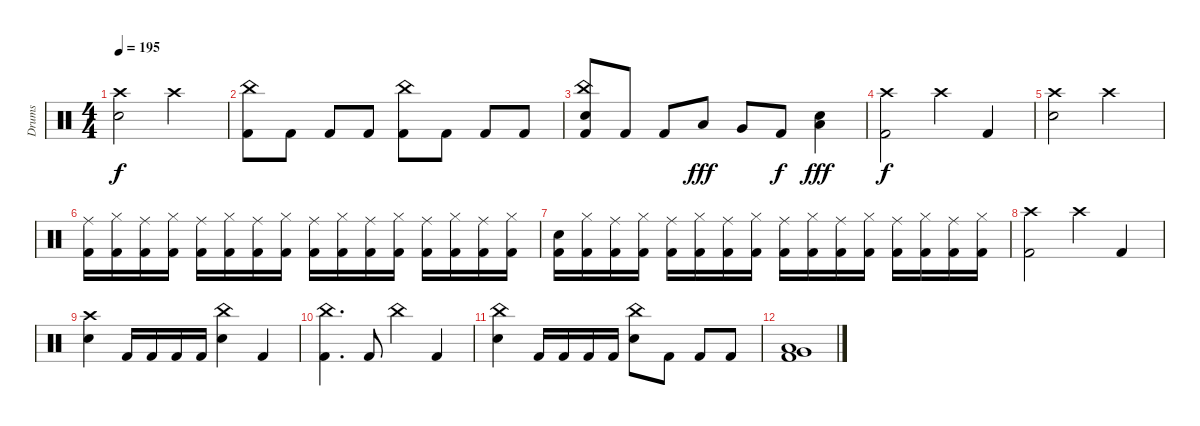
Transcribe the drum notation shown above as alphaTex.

\track ("Drums" "Drums") {instrument percussion}
\staff {score}
\articulation defaults
\ts (4 4)
\tempo 195
\clef neutral
\ks c
("Crash high (hit)" "Snare (hit) 2").2{dy f} "Crash high (hit)".2 |
("China (hit)" "Kick (hit) 2").8 "Kick (hit) 2".8 "Kick (hit) 2".8 "Kick (hit) 2".8 ("China (hit)" "Kick (hit) 2").8 "Kick (hit) 2".8 "Kick (hit) 2".8 "Kick (hit) 2".8 |
("China (hit)" "Snare (hit) 2" "Kick (hit) 2").8 "Kick (hit) 2".8 "Kick (hit) 2".8 "Low Tom (hit)".8{dy fff} "Very Low Tom (hit)".8 "Kick (hit) 2".8{dy f} ("Low Floor Tom (hit)" "Snare (hit) 2").4{dy fff} |
("Crash high (hit)" "Kick (hit) 2").2{dy f} "Crash high (hit)".4 "Kick (hit) 2".4 |
("Crash high (hit)" "Snare (hit) 2").2 "Crash high (hit)".2 |
("Ride (middle)" "Kick (hit) 2").16 ("Hi-Hat (closed)" "Kick (hit) 2").16 ("Ride (middle)" "Kick (hit) 2").16 ("Hi-Hat (closed)" "Kick (hit) 2").16 ("Ride (middle)" "Kick (hit) 2").16 ("Hi-Hat (closed)" "Kick (hit) 2").16 ("Ride (middle)" "Kick (hit) 2").16 ("Hi-Hat (closed)" "Kick (hit) 2").16 ("Ride (middle)" "Kick (hit) 2").16 ("Hi-Hat (closed)" "Kick (hit) 2").16 ("Ride (middle)" "Kick (hit) 2").16 ("Hi-Hat (closed)" "Kick (hit) 2").16 ("Ride (middle)" "Kick (hit) 2").16 ("Hi-Hat (closed)" "Kick (hit) 2").16 ("Ride (middle)" "Kick (hit) 2").16 ("Hi-Hat (closed)" "Kick (hit) 2").16 |
("Snare (hit) 2" "Kick (hit) 2").16 ("Hi-Hat (closed)" "Kick (hit) 2").16 ("Ride (middle)" "Kick (hit) 2").16 ("Hi-Hat (closed)" "Kick (hit) 2").16 ("Ride (middle)" "Kick (hit) 2").16 ("Hi-Hat (closed)" "Kick (hit) 2").16 ("Ride (middle)" "Kick (hit) 2").16 ("Hi-Hat (closed)" "Kick (hit) 2").16 ("Ride (middle)" "Kick (hit) 2").16 ("Hi-Hat (closed)" "Kick (hit) 2").16 ("Ride (middle)" "Kick (hit) 2").16 ("Hi-Hat (closed)" "Kick (hit) 2").16 ("Ride (middle)" "Kick (hit) 2").16 ("Hi-Hat (closed)" "Kick (hit) 2").16 ("Ride (middle)" "Kick (hit) 2").16 ("Hi-Hat (closed)" "Kick (hit) 2").16 |
("Crash high (hit)" "Kick (hit) 2").2 "Crash high (hit)".4 "Kick (hit) 2".4 |
("Crash high (hit)" "Snare (hit) 2").4 "Kick (hit) 2".16 "Kick (hit) 2".16 "Kick (hit) 2".16 "Kick (hit) 2".16 ("China (hit)" "Snare (hit) 2").4 "Kick (hit) 2".4 |
("China (hit)" "Kick (hit) 2").4{d} "Kick (hit) 2".8 "China (hit)".4 "Kick (hit) 2".4 |
("China (hit)" "Snare (hit) 2").4 "Kick (hit) 2".16 "Kick (hit) 2".16 "Kick (hit) 2".16 "Kick (hit) 2".16 ("China (hit)" "Snare (hit) 2").8 "Kick (hit) 2".8 "Kick (hit) 2".8 "Kick (hit) 2".8 |
("Low Floor Tom (hit)" "Very Low Tom (hit)" "Kick (hit) 2").1
